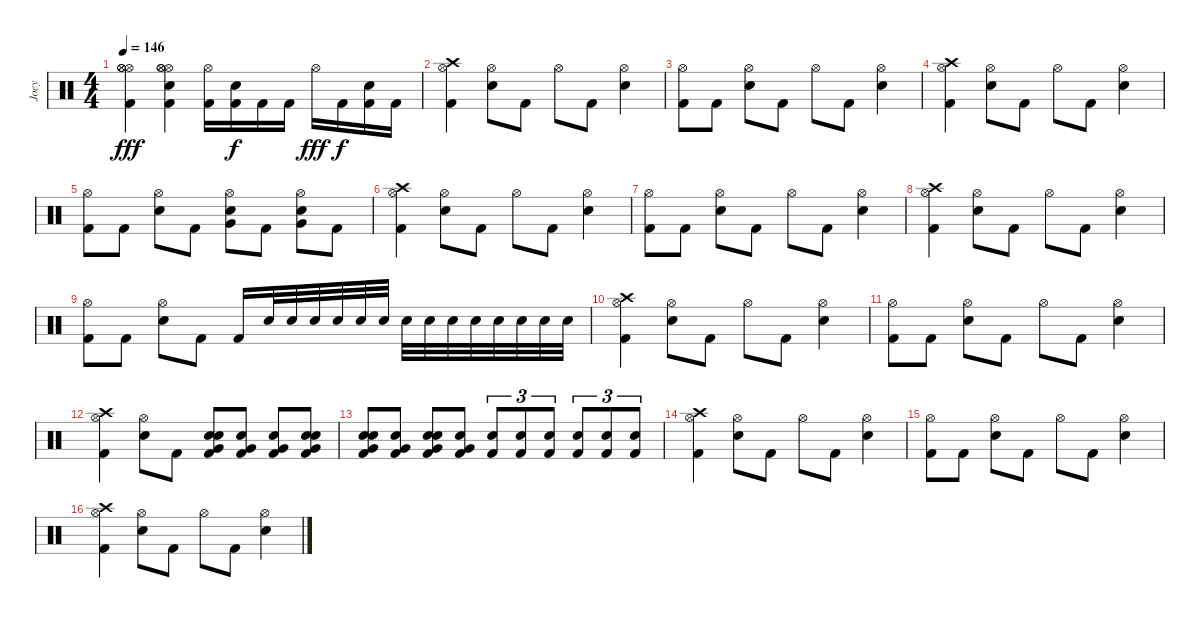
\track ("Joey" "Joey") {instrument percussion}
\staff {score}
\articulation defaults
\ts (4 4)
\tempo 146
\clef neutral
\ks c
("Hi-Hat (open)" "Hi-Hat (open)" "Hi-Hat (open)" "Kick (hit) 2").4{dy fff} ("Hi-Hat (open)" "Hi-Hat (open)" "Hi-Hat (open)" "Electric Snare (hit)" "Kick (hit) 2").4 ("Hi-Hat (open)" "Kick (hit) 2").16 ("Electric Snare (hit)" "Kick (hit) 2").16{dy f} "Kick (hit) 2".16 "Kick (hit) 2".16 "Hi-Hat (open)".16{dy fff} "Kick (hit) 2".16{dy f} ("Electric Snare (hit)" "Kick (hit) 2").16 "Kick (hit) 2".16 |
("Hi-Hat (open)" "Crash high (hit)" "Kick (hit) 2").4 ("Hi-Hat (open)" "Electric Snare (hit)").8 "Kick (hit) 2".8 "Hi-Hat (open)".8 "Kick (hit) 2".8 ("Hi-Hat (open)" "Electric Snare (hit)").4 |
("Hi-Hat (open)" "Kick (hit) 2").8 "Kick (hit) 2".8 ("Hi-Hat (open)" "Electric Snare (hit)").8 "Kick (hit) 2".8 "Hi-Hat (open)".8 "Kick (hit) 2".8 ("Hi-Hat (open)" "Electric Snare (hit)").4 |
("Hi-Hat (open)" "Crash high (hit)" "Kick (hit) 2").4 ("Hi-Hat (open)" "Electric Snare (hit)").8 "Kick (hit) 2".8 "Hi-Hat (open)".8 "Kick (hit) 2".8 ("Hi-Hat (open)" "Electric Snare (hit)").4 |
("Hi-Hat (open)" "Kick (hit) 2").8 "Kick (hit) 2".8 ("Hi-Hat (open)" "Electric Snare (hit)").8 "Kick (hit) 2".8 ("Hi-Hat (open)" "Electric Snare (hit)" "Very Low Tom (hit)").8 "Kick (hit) 2".8 ("Hi-Hat (open)" "Very Low Tom (hit)" "Electric Snare (hit)").8 "Kick (hit) 2".8 |
("Hi-Hat (open)" "Crash high (hit)" "Kick (hit) 2").4 ("Hi-Hat (open)" "Electric Snare (hit)").8 "Kick (hit) 2".8 "Hi-Hat (open)".8 "Kick (hit) 2".8 ("Hi-Hat (open)" "Electric Snare (hit)").4 |
("Hi-Hat (open)" "Kick (hit) 2").8 "Kick (hit) 2".8 ("Hi-Hat (open)" "Electric Snare (hit)").8 "Kick (hit) 2".8 "Hi-Hat (open)".8 "Kick (hit) 2".8 ("Hi-Hat (open)" "Electric Snare (hit)").4 |
("Hi-Hat (open)" "Crash high (hit)" "Kick (hit) 2").4 ("Hi-Hat (open)" "Electric Snare (hit)").8 "Kick (hit) 2".8 "Hi-Hat (open)".8 "Kick (hit) 2".8 ("Hi-Hat (open)" "Electric Snare (hit)").4 |
("Hi-Hat (open)" "Kick (hit) 2").8 "Kick (hit) 2".8 ("Hi-Hat (open)" "Electric Snare (hit)").8 "Kick (hit) 2".8 "Kick (hit) 2".16 "Electric Snare (hit)".32 "Electric Snare (hit)".32 "Electric Snare (hit)".32 "Electric Snare (hit)".32 "Electric Snare (hit)".32 "Electric Snare (hit)".32 "Electric Snare (hit)".32 "Electric Snare (hit)".32 "Electric Snare (hit)".32 "Electric Snare (hit)".32 "Electric Snare (hit)".32 "Electric Snare (hit)".32 "Electric Snare (hit)".32 "Electric Snare (hit)".32 |
("Hi-Hat (open)" "Crash high (hit)" "Kick (hit) 2").4 ("Hi-Hat (open)" "Electric Snare (hit)").8 "Kick (hit) 2".8 "Hi-Hat (open)".8 "Kick (hit) 2".8 ("Hi-Hat (open)" "Electric Snare (hit)").4 |
("Hi-Hat (open)" "Kick (hit) 2").8 "Kick (hit) 2".8 ("Hi-Hat (open)" "Electric Snare (hit)").8 "Kick (hit) 2".8 "Hi-Hat (open)".8 "Kick (hit) 2".8 ("Hi-Hat (open)" "Electric Snare (hit)").4 |
("Hi-Hat (open)" "Crash high (hit)" "Kick (hit) 2").4 ("Hi-Hat (open)" "Electric Snare (hit)").8 "Kick (hit) 2".8 ("Snare (hit)" "Very Low Tom (hit)" "Electric Snare (hit)" "Kick (hit) 2").8 ("Very Low Tom (hit)" "Electric Snare (hit)" "Kick (hit) 2").8 ("Kick (hit) 2" "Very Low Tom (hit)" "Electric Snare (hit)").8 ("Snare (hit)" "Kick (hit) 2" "Very Low Tom (hit)" "Electric Snare (hit)").8 |
("Snare (hit)" "Electric Snare (hit)" "Very Low Tom (hit)" "Kick (hit) 2").8 ("Electric Snare (hit)" "Very Low Tom (hit)" "Kick (hit) 2").8 ("Snare (hit)" "Electric Snare (hit)" "Very Low Tom (hit)" "Kick (hit) 2").8 ("Electric Snare (hit)" "Very Low Tom (hit)" "Kick (hit) 2").8 ("Kick (hit) 2" "Electric Snare (hit)").8{tu (3 2)} ("Kick (hit) 2" "Electric Snare (hit)").8{tu (3 2)} ("Kick (hit) 2" "Electric Snare (hit)").8{tu (3 2)} ("Kick (hit) 2" "Electric Snare (hit)").8{tu (3 2)} ("Kick (hit) 2" "Electric Snare (hit)").8{tu (3 2)} ("Kick (hit) 2" "Electric Snare (hit)").8{tu (3 2)} |
("Hi-Hat (open)" "Crash high (hit)" "Kick (hit) 2").4 ("Hi-Hat (open)" "Electric Snare (hit)").8 "Kick (hit) 2".8 "Hi-Hat (open)".8 "Kick (hit) 2".8 ("Hi-Hat (open)" "Electric Snare (hit)").4 |
("Hi-Hat (open)" "Kick (hit) 2").8 "Kick (hit) 2".8 ("Hi-Hat (open)" "Electric Snare (hit)").8 "Kick (hit) 2".8 "Hi-Hat (open)".8 "Kick (hit) 2".8 ("Hi-Hat (open)" "Electric Snare (hit)").4 |
("Hi-Hat (open)" "Crash high (hit)" "Kick (hit) 2").4 ("Hi-Hat (open)" "Electric Snare (hit)").8 "Kick (hit) 2".8 "Hi-Hat (open)".8 "Kick (hit) 2".8 ("Hi-Hat (open)" "Electric Snare (hit)").4
